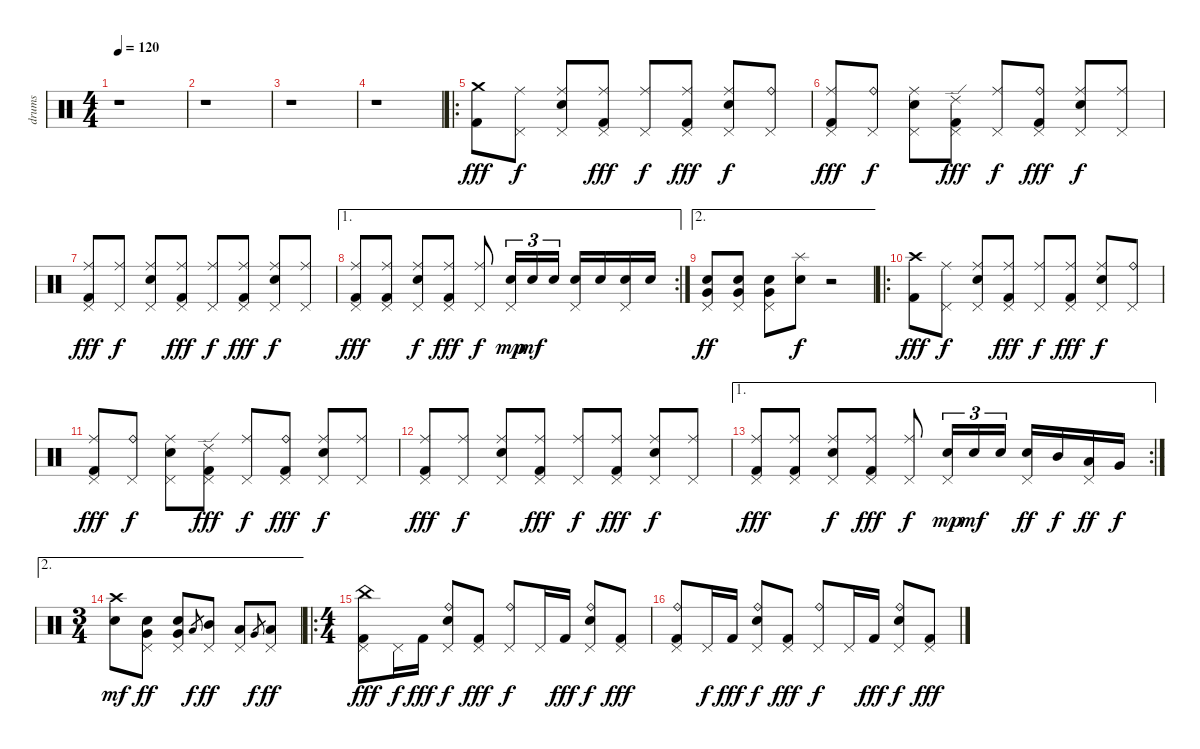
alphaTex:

\track ("drums" "drums") {instrument percussion}
\staff {score}
\articulation defaults
\ts (4 4)
\section ("" "")
\tempo 120
\clef neutral
\ks c
r.1{dy fff} |
r.1 |
r.1 |
r.1 |
\ro
\section ("" "")
("Crash medium (hit)" "Kick (hit) 2").8 ("Ride (middle)" "Pedal Hi-Hat (hit)").8{dy f} ("Ride (middle)" "Pedal Hi-Hat (hit)" "Electric Snare (hit)").8 ("Ride (middle)" "Pedal Hi-Hat (hit)" "Kick (hit) 2").8{dy fff} ("Ride (middle)" "Pedal Hi-Hat (hit)").8{dy f} ("Ride (middle)" "Pedal Hi-Hat (hit)" "Kick (hit) 2").8{dy fff} ("Ride (middle)" "Pedal Hi-Hat (hit)" "Electric Snare (hit)").8{dy f} ("Ride (bell)" "Pedal Hi-Hat (hit)").8 |
("Ride (middle)" "Pedal Hi-Hat (hit)" "Kick (hit) 2").8{dy fff} ("Ride (bell)" "Pedal Hi-Hat (hit)").8{dy f} ("Ride (middle)" "Pedal Hi-Hat (hit)" "Electric Snare (hit)").8 ("Ride (edge) 2" "Pedal Hi-Hat (hit)" "Kick (hit) 2").8{dy fff} ("Ride (middle)" "Pedal Hi-Hat (hit)").8{dy f} ("Ride (bell)" "Pedal Hi-Hat (hit)" "Kick (hit) 2").8{dy fff} ("Ride (middle)" "Pedal Hi-Hat (hit)" "Electric Snare (hit)").8{dy f} ("Ride (middle)" "Pedal Hi-Hat (hit)").8 |
("Ride (middle)" "Pedal Hi-Hat (hit)" "Kick (hit) 2").8{dy fff} ("Ride (middle)" "Pedal Hi-Hat (hit)").8{dy f} ("Ride (middle)" "Pedal Hi-Hat (hit)" "Electric Snare (hit)").8 ("Ride (middle)" "Pedal Hi-Hat (hit)" "Kick (hit) 2").8{dy fff} ("Ride (middle)" "Pedal Hi-Hat (hit)").8{dy f} ("Ride (middle)" "Pedal Hi-Hat (hit)" "Kick (hit) 2").8{dy fff} ("Ride (middle)" "Pedal Hi-Hat (hit)" "Electric Snare (hit)").8{dy f} ("Ride (middle)" "Pedal Hi-Hat (hit)").8 |
\ae 1
\rc 2
("Ride (middle)" "Pedal Hi-Hat (hit)" "Kick (hit) 2").8{dy fff} ("Ride (middle)" "Pedal Hi-Hat (hit)" "Kick (hit) 2").8 ("Ride (middle)" "Pedal Hi-Hat (hit)" "Electric Snare (hit)").8{dy f} ("Ride (middle)" "Pedal Hi-Hat (hit)" "Kick (hit) 2").8{dy fff} ("Ride (middle)" "Pedal Hi-Hat (hit)").8{dy f} ("Pedal Hi-Hat (hit)" "Electric Snare (hit)").16{tu (3 2) dy mp} "Electric Snare (hit)".16{tu (3 2) dy mf} "Electric Snare (hit)".16{tu (3 2)} ("Pedal Hi-Hat (hit)" "Electric Snare (hit)").16 "Electric Snare (hit)".16 ("Pedal Hi-Hat (hit)" "Electric Snare (hit)").16 "Electric Snare (hit)".16 |
\ae 2
("Pedal Hi-Hat (hit)" "Electric Snare (hit)" "Very Low Tom (hit)").8{dy ff} ("Pedal Hi-Hat (hit)" "Electric Snare (hit)" "Very Low Tom (hit)").8 ("Pedal Hi-Hat (hit)" "Electric Snare (hit)" "Very Low Tom (hit)").8 ("Splash (hit)" "Electric Snare (hit)").8{dy f} r.2 |
\ro
\section ("" "")
("Crash high (hit)" "Kick (hit) 2").8{dy fff} ("Ride (middle)" "Pedal Hi-Hat (hit)").8{dy f} ("Ride (middle)" "Pedal Hi-Hat (hit)" "Electric Snare (hit)").8 ("Ride (middle)" "Pedal Hi-Hat (hit)" "Kick (hit) 2").8{dy fff} ("Ride (middle)" "Pedal Hi-Hat (hit)").8{dy f} ("Ride (middle)" "Pedal Hi-Hat (hit)" "Kick (hit) 2").8{dy fff} ("Ride (middle)" "Pedal Hi-Hat (hit)" "Electric Snare (hit)").8{dy f} ("Ride (bell)" "Pedal Hi-Hat (hit)").8 |
("Ride (middle)" "Pedal Hi-Hat (hit)" "Kick (hit) 2").8{dy fff} ("Ride (bell)" "Pedal Hi-Hat (hit)").8{dy f} ("Ride (middle)" "Pedal Hi-Hat (hit)" "Electric Snare (hit)").8 ("Ride (edge) 2" "Pedal Hi-Hat (hit)" "Kick (hit) 2").8{dy fff} ("Ride (middle)" "Pedal Hi-Hat (hit)").8{dy f} ("Ride (bell)" "Pedal Hi-Hat (hit)" "Kick (hit) 2").8{dy fff} ("Ride (middle)" "Pedal Hi-Hat (hit)" "Electric Snare (hit)").8{dy f} ("Ride (middle)" "Pedal Hi-Hat (hit)").8 |
("Ride (middle)" "Pedal Hi-Hat (hit)" "Kick (hit) 2").8{dy fff} ("Ride (middle)" "Pedal Hi-Hat (hit)").8{dy f} ("Ride (middle)" "Pedal Hi-Hat (hit)" "Electric Snare (hit)").8 ("Ride (middle)" "Pedal Hi-Hat (hit)" "Kick (hit) 2").8{dy fff} ("Ride (middle)" "Pedal Hi-Hat (hit)").8{dy f} ("Ride (middle)" "Pedal Hi-Hat (hit)" "Kick (hit) 2").8{dy fff} ("Ride (middle)" "Pedal Hi-Hat (hit)" "Electric Snare (hit)").8{dy f} ("Ride (middle)" "Pedal Hi-Hat (hit)").8 |
\ae 1
\rc 2
("Ride (middle)" "Pedal Hi-Hat (hit)" "Kick (hit) 2").8{dy fff} ("Ride (middle)" "Pedal Hi-Hat (hit)" "Kick (hit) 2").8 ("Ride (middle)" "Pedal Hi-Hat (hit)" "Electric Snare (hit)").8{dy f} ("Ride (middle)" "Pedal Hi-Hat (hit)" "Kick (hit) 2").8{dy fff} ("Ride (middle)" "Pedal Hi-Hat (hit)").8{dy f} ("Pedal Hi-Hat (hit)" "Electric Snare (hit)").16{tu (3 2) dy mp} "Electric Snare (hit)".16{tu (3 2) dy mf} "Electric Snare (hit)".16{tu (3 2)} ("Pedal Hi-Hat (hit)" "Electric Snare (hit)").16{dy ff} "Mid Tom (hit)".16{dy f} ("Pedal Hi-Hat (hit)" "Low Tom (hit)").16{dy ff} "Very Low Tom (hit)".16{dy f} |
\ae 2
\ts (3 4)
("Crash high (hit)" "Electric Snare (hit)").8{dy mf} ("Pedal Hi-Hat (hit)" "Electric Snare (hit)" "Very Low Tom (hit)").8{dy ff} ("Pedal Hi-Hat (hit)" "Electric Snare (hit)" "Very Low Tom (hit)").8 "Low Tom (hit)".8{gr dy f} ("Pedal Hi-Hat (hit)" "Mid Tom (hit)").8{dy ff} ("Pedal Hi-Hat (hit)" "Low Tom (hit)").8 "Very Low Tom (hit)".8{gr dy f} ("Pedal Hi-Hat (hit)" "Low Tom (hit)").8{dy ff} |
\ro
\ts (4 4)
\section ("" "")
("China (hit)" "Pedal Hi-Hat (hit)" "Kick (hit) 2").8{dy fff} "Pedal Hi-Hat (hit)".16{dy f} "Kick (hit) 2".16{dy fff} ("Ride (bell)" "Pedal Hi-Hat (hit)" "Electric Snare (hit)").8{dy f} ("Pedal Hi-Hat (hit)" "Kick (hit) 2").8{dy fff} ("Ride (bell)" "Pedal Hi-Hat (hit)").8{dy f} "Pedal Hi-Hat (hit)".16 "Kick (hit) 2".16{dy fff} ("Ride (bell)" "Pedal Hi-Hat (hit)" "Electric Snare (hit)").8{dy f} ("Pedal Hi-Hat (hit)" "Kick (hit) 2").8{dy fff} |
("Ride (bell)" "Pedal Hi-Hat (hit)" "Kick (hit) 2").8 "Pedal Hi-Hat (hit)".16{dy f} "Kick (hit) 2".16{dy fff} ("Ride (bell)" "Pedal Hi-Hat (hit)" "Electric Snare (hit)").8{dy f} ("Pedal Hi-Hat (hit)" "Kick (hit) 2").8{dy fff} ("Ride (bell)" "Pedal Hi-Hat (hit)").8{dy f} "Pedal Hi-Hat (hit)".16 "Kick (hit) 2".16{dy fff} ("Ride (bell)" "Pedal Hi-Hat (hit)" "Electric Snare (hit)").8{dy f} ("Pedal Hi-Hat (hit)" "Kick (hit) 2").8{dy fff}
